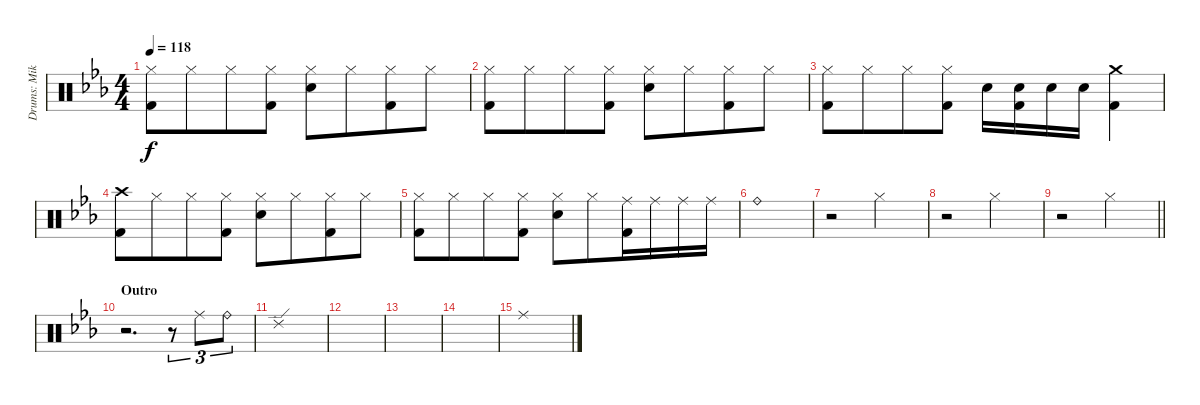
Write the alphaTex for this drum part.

\track ("Drums: Mike" "Drums: Mik") {instrument percussion}
\staff {score}
\articulation defaults
\ts (4 4)
\tempo 118
\clef neutral
\ks eb
("Hi-Hat (closed)" "Kick (hit) 2").8{dy f} "Hi-Hat (closed)".8{beam merge} "Hi-Hat (closed)".8 ("Hi-Hat (closed)" "Kick (hit) 2").8 ("Hi-Hat (closed)" "Electric Snare (hit)").8 "Hi-Hat (closed)".8{beam merge} ("Hi-Hat (closed)" "Kick (hit) 2").8 "Hi-Hat (closed)".8 |
("Hi-Hat (closed)" "Kick (hit) 2").8 "Hi-Hat (closed)".8{beam merge} "Hi-Hat (closed)".8 ("Hi-Hat (closed)" "Kick (hit) 2").8 ("Hi-Hat (closed)" "Electric Snare (hit)").8 "Hi-Hat (closed)".8{beam merge} ("Hi-Hat (closed)" "Kick (hit) 2").8 "Hi-Hat (closed)".8 |
("Hi-Hat (closed)" "Kick (hit) 2").8 "Hi-Hat (closed)".8{beam merge} "Hi-Hat (closed)".8 ("Hi-Hat (closed)" "Kick (hit) 2").8 "Electric Snare (hit)".16 ("Electric Snare (hit)" "Kick (hit) 2").16 "Electric Snare (hit)".16 "Electric Snare (hit)".16{beam merge} ("Crash medium (hit)" "Kick (hit) 2").4 |
("Crash high (hit)" "Kick (hit) 2").8 "Hi-Hat (closed)".8{beam merge} "Hi-Hat (closed)".8 ("Hi-Hat (closed)" "Kick (hit) 2").8 ("Hi-Hat (closed)" "Electric Snare (hit)").8 "Hi-Hat (closed)".8{beam merge} ("Hi-Hat (closed)" "Kick (hit) 2").8 "Hi-Hat (closed)".8 |
("Hi-Hat (closed)" "Kick (hit) 2").8 "Hi-Hat (closed)".8{beam merge} "Hi-Hat (closed)".8 ("Hi-Hat (closed)" "Kick (hit) 2").8 ("Hi-Hat (closed)" "Electric Snare (hit)").8 "Hi-Hat (closed)".8{beam merge} ("Ride (middle)" "Kick (hit) 2").16{beam merge} "Ride (middle)".16{beam merge} "Ride (middle)".16{beam merge} "Ride (middle)".16 |
"Ride (bell)".1 |
r.2 "Hi-Hat (closed)".2 |
r.2 "Hi-Hat (closed)".2 |
\barLineRight lightlight
r.2 "Hi-Hat (closed)".2 |
\section ("" "Outro")
r.2{d} r.8{tu (3 2)} "Ride (middle)".8{tu (3 2)} "Ride (bell)".8{tu (3 2)} |
"Ride (edge) 2".1 |
|
|
|
"Ride (middle)".1
